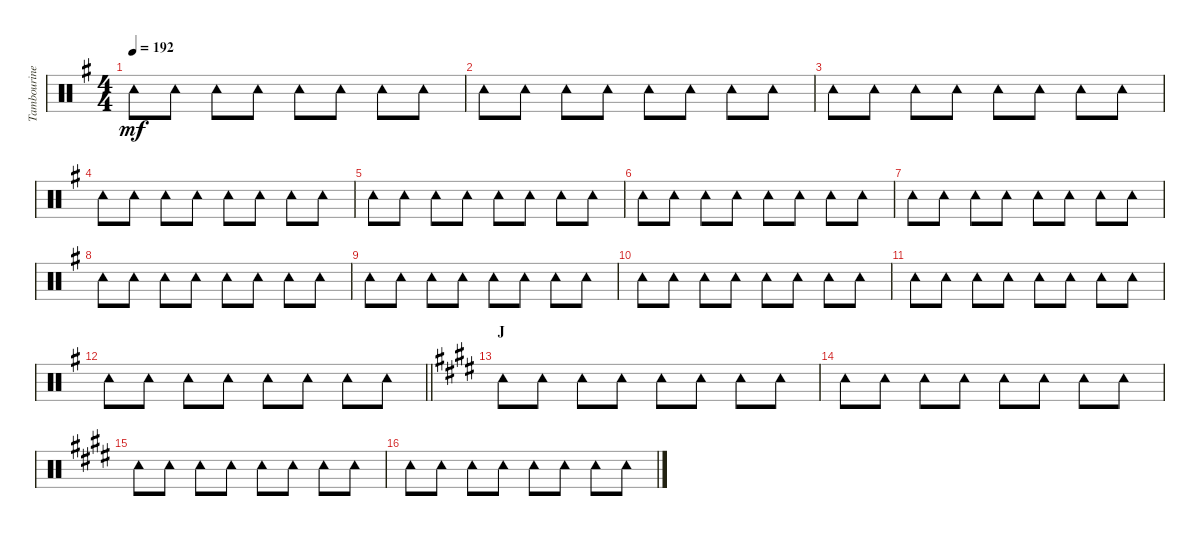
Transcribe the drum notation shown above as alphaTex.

\track ("Tambourine" "Tambourine") {instrument percussion}
\staff {score}
\articulation defaults
\ts (4 4)
\tempo 192
\clef neutral
\ks g "Tambourine (hit)".8{dy mf} "Tambourine (hit)".8 "Tambourine (hit)".8 "Tambourine (hit)".8 "Tambourine (hit)".8 "Tambourine (hit)".8 "Tambourine (hit)".8 "Tambourine (hit)".8
|
"Tambourine (hit)".8 "Tambourine (hit)".8 "Tambourine (hit)".8 "Tambourine (hit)".8 "Tambourine (hit)".8 "Tambourine (hit)".8 "Tambourine (hit)".8 "Tambourine (hit)".8 |
"Tambourine (hit)".8 "Tambourine (hit)".8 "Tambourine (hit)".8 "Tambourine (hit)".8 "Tambourine (hit)".8 "Tambourine (hit)".8 "Tambourine (hit)".8 "Tambourine (hit)".8 |
"Tambourine (hit)".8 "Tambourine (hit)".8 "Tambourine (hit)".8 "Tambourine (hit)".8 "Tambourine (hit)".8 "Tambourine (hit)".8 "Tambourine (hit)".8 "Tambourine (hit)".8 |
"Tambourine (hit)".8 "Tambourine (hit)".8 "Tambourine (hit)".8 "Tambourine (hit)".8 "Tambourine (hit)".8 "Tambourine (hit)".8 "Tambourine (hit)".8 "Tambourine (hit)".8 |
"Tambourine (hit)".8 "Tambourine (hit)".8 "Tambourine (hit)".8 "Tambourine (hit)".8 "Tambourine (hit)".8 "Tambourine (hit)".8 "Tambourine (hit)".8 "Tambourine (hit)".8 |
"Tambourine (hit)".8 "Tambourine (hit)".8 "Tambourine (hit)".8 "Tambourine (hit)".8 "Tambourine (hit)".8 "Tambourine (hit)".8 "Tambourine (hit)".8 "Tambourine (hit)".8 |
"Tambourine (hit)".8 "Tambourine (hit)".8 "Tambourine (hit)".8 "Tambourine (hit)".8 "Tambourine (hit)".8 "Tambourine (hit)".8 "Tambourine (hit)".8 "Tambourine (hit)".8 |
"Tambourine (hit)".8 "Tambourine (hit)".8 "Tambourine (hit)".8 "Tambourine (hit)".8 "Tambourine (hit)".8 "Tambourine (hit)".8 "Tambourine (hit)".8 "Tambourine (hit)".8 |
"Tambourine (hit)".8 "Tambourine (hit)".8 "Tambourine (hit)".8 "Tambourine (hit)".8 "Tambourine (hit)".8 "Tambourine (hit)".8 "Tambourine (hit)".8 "Tambourine (hit)".8 |
"Tambourine (hit)".8 "Tambourine (hit)".8 "Tambourine (hit)".8 "Tambourine (hit)".8 "Tambourine (hit)".8 "Tambourine (hit)".8 "Tambourine (hit)".8 "Tambourine (hit)".8 |
\barLineRight lightlight "Tambourine (hit)".8 "Tambourine (hit)".8 "Tambourine (hit)".8 "Tambourine (hit)".8 "Tambourine (hit)".8 "Tambourine (hit)".8 "Tambourine (hit)".8 "Tambourine (hit)".8
|
\section ("" "J")
\ks e "Tambourine (hit)".8 "Tambourine (hit)".8 "Tambourine (hit)".8 "Tambourine (hit)".8 "Tambourine (hit)".8 "Tambourine (hit)".8 "Tambourine (hit)".8 "Tambourine (hit)".8
|
"Tambourine (hit)".8 "Tambourine (hit)".8 "Tambourine (hit)".8 "Tambourine (hit)".8 "Tambourine (hit)".8 "Tambourine (hit)".8 "Tambourine (hit)".8 "Tambourine (hit)".8 |
"Tambourine (hit)".8 "Tambourine (hit)".8 "Tambourine (hit)".8 "Tambourine (hit)".8 "Tambourine (hit)".8 "Tambourine (hit)".8 "Tambourine (hit)".8 "Tambourine (hit)".8 |
"Tambourine (hit)".8 "Tambourine (hit)".8 "Tambourine (hit)".8 "Tambourine (hit)".8 "Tambourine (hit)".8 "Tambourine (hit)".8 "Tambourine (hit)".8 "Tambourine (hit)".8
